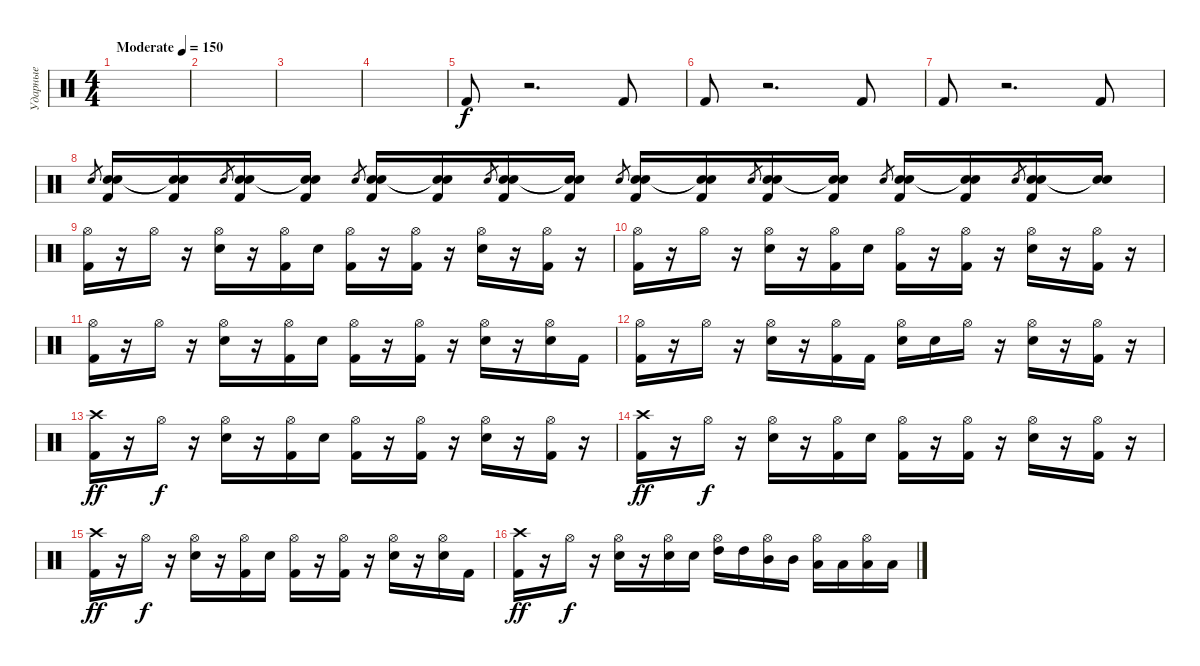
\track ("Ударные" "Ударные") {instrument percussion}
\staff {score}
\articulation defaults
\ts (4 4)
\tempo (150 "Moderate")
\clef neutral
\ks c
|
|
|
|
"Kick (hit) 2".8 r.2{d} "Kick (hit) 2".8 |
"Kick (hit) 2".8 r.2{d} "Kick (hit) 2".8 |
"Kick (hit) 2".8 r.2{d} "Kick (hit) 2".8 |
"Snare (hit) 2".8{gr} ("Electric Snare (hit)" "Snare (hit) 2" "Kick (hit) 2").16 ("Electric Snare (hit)"{t} "Snare (hit) 2"{t} "Kick (hit) 2").16 "Snare (hit) 2".8{gr} ("Electric Snare (hit)" "Snare (hit) 2" "Kick (hit) 2").16 ("Electric Snare (hit)"{t} "Snare (hit) 2"{t} "Kick (hit) 2").16 "Snare (hit) 2".8{gr} ("Electric Snare (hit)" "Snare (hit) 2" "Kick (hit) 2").16 ("Electric Snare (hit)"{t} "Snare (hit) 2"{t} "Kick (hit) 2").16 "Snare (hit) 2".8{gr} ("Electric Snare (hit)" "Snare (hit) 2" "Kick (hit) 2").16 ("Electric Snare (hit)"{t} "Snare (hit) 2"{t} "Kick (hit) 2").16 "Snare (hit) 2".8{gr} ("Electric Snare (hit)" "Snare (hit) 2" "Kick (hit) 2").16 ("Electric Snare (hit)"{t} "Snare (hit) 2"{t} "Kick (hit) 2").16 "Snare (hit) 2".8{gr} ("Electric Snare (hit)" "Snare (hit) 2" "Kick (hit) 2").16 ("Electric Snare (hit)"{t} "Snare (hit) 2"{t} "Kick (hit) 2").16 "Snare (hit) 2".8{gr} ("Electric Snare (hit)" "Snare (hit) 2" "Kick (hit) 2").16 ("Electric Snare (hit)"{t} "Snare (hit) 2"{t} "Kick (hit) 2").16 "Snare (hit) 2".8{gr} ("Electric Snare (hit)" "Snare (hit) 2" "Kick (hit) 2").16 ("Electric Snare (hit)"{t} "Snare (hit) 2"{t}).16 |
("Hi-Hat (open)" "Kick (hit) 2").16 r.16 "Hi-Hat (open)".16 r.16 ("Hi-Hat (open)" "Snare (hit) 2").16 r.16 ("Hi-Hat (open)" "Kick (hit) 2").16 "Snare (hit) 2".16 ("Hi-Hat (open)" "Kick (hit) 2").16 r.16 ("Hi-Hat (open)" "Kick (hit) 2").16 r.16 ("Hi-Hat (open)" "Snare (hit) 2").16 r.16 ("Hi-Hat (open)" "Kick (hit) 2").16 r.16 |
("Hi-Hat (open)" "Kick (hit) 2").16 r.16 "Hi-Hat (open)".16 r.16 ("Hi-Hat (open)" "Snare (hit) 2").16 r.16 ("Hi-Hat (open)" "Kick (hit) 2").16 "Snare (hit) 2".16 ("Hi-Hat (open)" "Kick (hit) 2").16 r.16 ("Hi-Hat (open)" "Kick (hit) 2").16 r.16 ("Hi-Hat (open)" "Snare (hit) 2").16 r.16 ("Hi-Hat (open)" "Kick (hit) 2").16 r.16 |
("Hi-Hat (open)" "Kick (hit) 2").16 r.16 "Hi-Hat (open)".16 r.16 ("Hi-Hat (open)" "Snare (hit) 2").16 r.16 ("Hi-Hat (open)" "Kick (hit) 2").16 "Snare (hit) 2".16 ("Hi-Hat (open)" "Kick (hit) 2").16 r.16 ("Hi-Hat (open)" "Kick (hit) 2").16 r.16 ("Hi-Hat (open)" "Snare (hit) 2").16 r.16 ("Hi-Hat (open)" "Snare (hit) 2").16 "Kick (hit) 2".16 |
("Hi-Hat (open)" "Kick (hit) 2").16 r.16 "Hi-Hat (open)".16 r.16 ("Hi-Hat (open)" "Snare (hit) 2").16 r.16 ("Hi-Hat (open)" "Kick (hit) 2").16 "Kick (hit) 2".16 ("Hi-Hat (open)" "Snare (hit) 2").16 "Snare (hit) 2".16 "Hi-Hat (open)".16 r.16 ("Hi-Hat (open)" "Snare (hit) 2").16 r.16 ("Hi-Hat (open)" "Kick (hit) 2").16 r.16 |
("Crash high (hit)" "Kick (hit) 2").16{dy ff} r.16 "Hi-Hat (open)".16{dy f} r.16 ("Hi-Hat (open)" "Snare (hit) 2").16 r.16 ("Hi-Hat (open)" "Kick (hit) 2").16 "Snare (hit) 2".16 ("Hi-Hat (open)" "Kick (hit) 2").16 r.16 ("Hi-Hat (open)" "Kick (hit) 2").16 r.16 ("Hi-Hat (open)" "Snare (hit) 2").16 r.16 ("Hi-Hat (open)" "Kick (hit) 2").16 r.16 |
("Crash high (hit)" "Kick (hit) 2").16{dy ff} r.16 "Hi-Hat (open)".16{dy f} r.16 ("Hi-Hat (open)" "Snare (hit) 2").16 r.16 ("Hi-Hat (open)" "Kick (hit) 2").16 "Snare (hit) 2".16 ("Hi-Hat (open)" "Kick (hit) 2").16 r.16 ("Hi-Hat (open)" "Kick (hit) 2").16 r.16 ("Hi-Hat (open)" "Snare (hit) 2").16 r.16 ("Hi-Hat (open)" "Kick (hit) 2").16 r.16 |
("Crash high (hit)" "Kick (hit) 2").16{dy ff} r.16 "Hi-Hat (open)".16{dy f} r.16 ("Hi-Hat (open)" "Snare (hit) 2").16 r.16 ("Hi-Hat (open)" "Kick (hit) 2").16 "Snare (hit) 2".16 ("Hi-Hat (open)" "Kick (hit) 2").16 r.16 ("Hi-Hat (open)" "Kick (hit) 2").16 r.16 ("Hi-Hat (open)" "Snare (hit) 2").16 r.16 ("Hi-Hat (open)" "Snare (hit) 2").16 "Kick (hit) 2".16 |
("Crash high (hit)" "Kick (hit) 2").16{dy ff} r.16 "Hi-Hat (open)".16{dy f} r.16 ("Hi-Hat (open)" "Snare (hit) 2").16 r.16 ("Hi-Hat (open)" "Snare (hit) 2").16 "Snare (hit) 2".16 ("Hi-Hat (open)" "High Tom (hit)").16 "High Tom (hit)".16 ("Hi-Hat (open)" "Mid Tom (hit)").16 "Mid Tom (hit)".16 ("Hi-Hat (open)" "Low Tom (hit)").16 "Low Tom (hit)".16 ("Hi-Hat (open)" "Low Floor Tom (hit)").16 "Low Floor Tom (hit)".16
